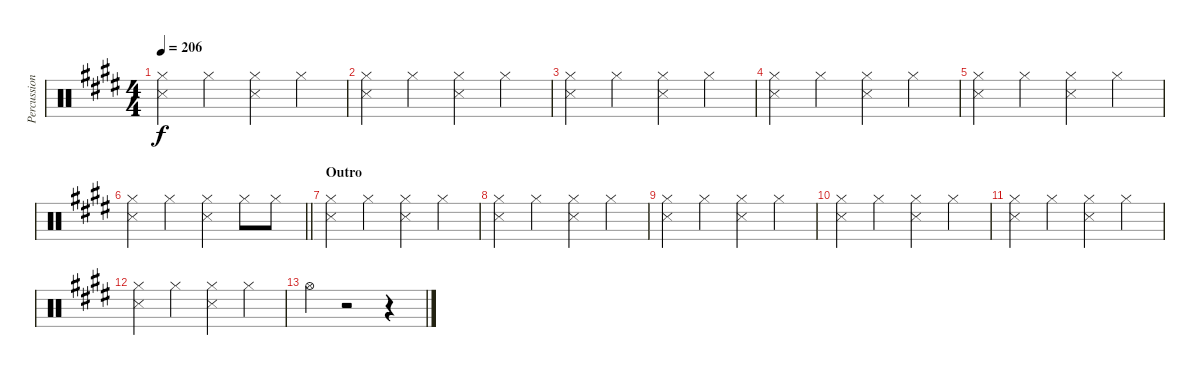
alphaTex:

\track ("Percussion" "Percussion") {instrument percussion}
\staff {score}
\articulation defaults
\ts (4 4)
\tempo 206
\clef neutral
\ks e
("Hi-Hat (closed)" "Snare (side stick) 3").4{dy f} "Hi-Hat (closed)".4 ("Hi-Hat (closed)" "Snare (side stick) 3").4 "Hi-Hat (closed)".4 |
("Hi-Hat (closed)" "Snare (side stick) 3").4 "Hi-Hat (closed)".4 ("Hi-Hat (closed)" "Snare (side stick) 3").4 "Hi-Hat (closed)".4 |
("Hi-Hat (closed)" "Snare (side stick) 3").4 "Hi-Hat (closed)".4 ("Hi-Hat (closed)" "Snare (side stick) 3").4 "Hi-Hat (closed)".4 |
("Hi-Hat (closed)" "Snare (side stick) 3").4 "Hi-Hat (closed)".4 ("Hi-Hat (closed)" "Snare (side stick) 3").4 "Hi-Hat (closed)".4 |
("Hi-Hat (closed)" "Snare (side stick) 3").4 "Hi-Hat (closed)".4 ("Hi-Hat (closed)" "Snare (side stick) 3").4 "Hi-Hat (closed)".4 |
\barLineRight lightlight
("Hi-Hat (closed)" "Snare (side stick) 3").4 "Hi-Hat (closed)".4 ("Hi-Hat (closed)" "Snare (side stick) 3").4 "Hi-Hat (closed)".8 "Hi-Hat (closed)".8 |
\section ("" "Outro")
("Hi-Hat (closed)" "Snare (side stick) 3").4 "Hi-Hat (closed)".4 ("Hi-Hat (closed)" "Snare (side stick) 3").4 "Hi-Hat (closed)".4 |
("Hi-Hat (closed)" "Snare (side stick) 3").4 "Hi-Hat (closed)".4 ("Hi-Hat (closed)" "Snare (side stick) 3").4 "Hi-Hat (closed)".4 |
("Hi-Hat (closed)" "Snare (side stick) 3").4 "Hi-Hat (closed)".4 ("Hi-Hat (closed)" "Snare (side stick) 3").4 "Hi-Hat (closed)".4 |
("Hi-Hat (closed)" "Snare (side stick) 3").4 "Hi-Hat (closed)".4 ("Hi-Hat (closed)" "Snare (side stick) 3").4 "Hi-Hat (closed)".4 |
("Hi-Hat (closed)" "Snare (side stick) 3").4 "Hi-Hat (closed)".4 ("Hi-Hat (closed)" "Snare (side stick) 3").4 "Hi-Hat (closed)".4 |
("Hi-Hat (closed)" "Snare (side stick) 3").4 "Hi-Hat (closed)".4 ("Hi-Hat (closed)" "Snare (side stick) 3").4 "Hi-Hat (closed)".4 |
"Hi-Hat (open)".4 r.2 r.4
